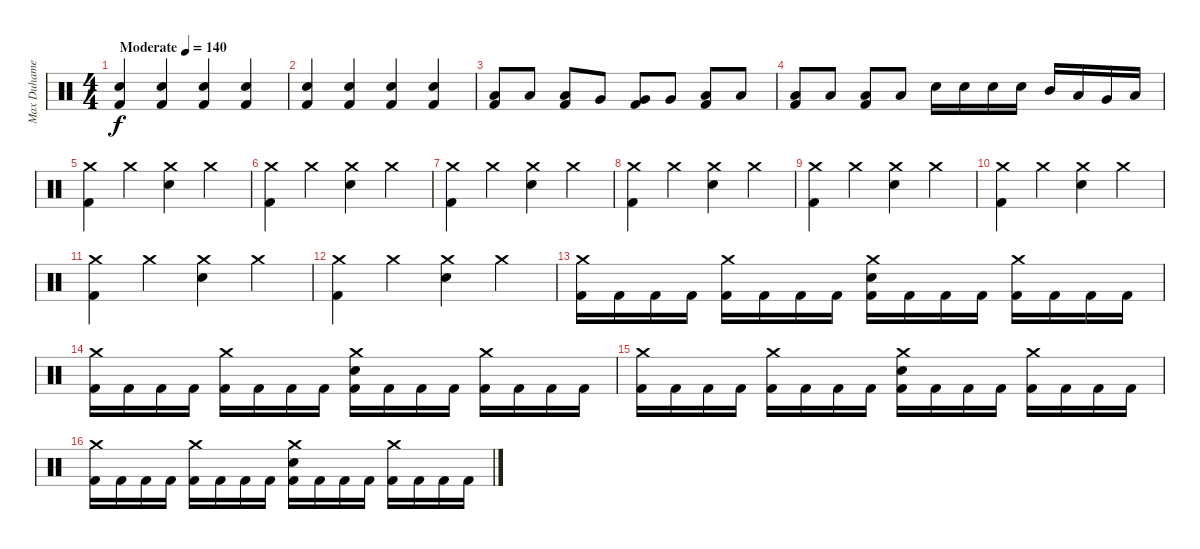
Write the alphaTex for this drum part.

\track ("Max Duhamel (Drums)" "Max Duhame") {instrument percussion}
\staff {score}
\articulation defaults
\ts (4 4)
\tempo (140 "Moderate")
\clef neutral
\ks c
("Electric Snare (hit)" "Kick (hit) 2").4{dy f} ("Electric Snare (hit)" "Kick (hit) 2").4 ("Electric Snare (hit)" "Kick (hit) 2").4 ("Electric Snare (hit)" "Kick (hit) 2").4 |
("Electric Snare (hit)" "Kick (hit) 2").4 ("Electric Snare (hit)" "Kick (hit) 2").4 ("Electric Snare (hit)" "Kick (hit) 2").4 ("Electric Snare (hit)" "Kick (hit) 2").4 |
("Low Tom (hit)" "Kick (hit) 2").8 "Low Tom (hit)".8 ("Low Tom (hit)" "Kick (hit) 2").8 "Very Low Tom (hit)".8 ("Very Low Tom (hit)" "Kick (hit) 2").8 "Very Low Tom (hit)".8 ("Low Floor Tom (hit)" "Kick (hit) 2").8 "Low Floor Tom (hit)".8 |
("Low Floor Tom (hit)" "Kick (hit) 2").8 "Low Floor Tom (hit)".8 ("Low Floor Tom (hit)" "Kick (hit) 2").8 "Low Floor Tom (hit)".8 "Electric Snare (hit)".16 "Electric Snare (hit)".16 "Electric Snare (hit)".16 "Electric Snare (hit)".16 "Mid Tom (hit)".16 "Low Tom (hit)".16 "Very Low Tom (hit)".16 "Low Floor Tom (hit)".16 |
("Crash medium (hit)" "Kick (hit) 2").4 "Crash medium (hit)".4 ("Crash medium (hit)" "Electric Snare (hit)").4 "Crash medium (hit)".4 |
("Crash medium (hit)" "Kick (hit) 2").4 "Crash medium (hit)".4 ("Crash medium (hit)" "Electric Snare (hit)").4 "Crash medium (hit)".4 |
("Crash medium (hit)" "Kick (hit) 2").4 "Crash medium (hit)".4 ("Crash medium (hit)" "Electric Snare (hit)").4 "Crash medium (hit)".4 |
("Crash medium (hit)" "Kick (hit) 2").4 "Crash medium (hit)".4 ("Crash medium (hit)" "Electric Snare (hit)").4 "Crash medium (hit)".4 |
("Crash medium (hit)" "Kick (hit) 2").4 "Crash medium (hit)".4 ("Crash medium (hit)" "Electric Snare (hit)").4 "Crash medium (hit)".4 |
("Crash medium (hit)" "Kick (hit) 2").4 "Crash medium (hit)".4 ("Crash medium (hit)" "Electric Snare (hit)").4 "Crash medium (hit)".4 |
("Crash medium (hit)" "Kick (hit) 2").4 "Crash medium (hit)".4 ("Crash medium (hit)" "Electric Snare (hit)").4 "Crash medium (hit)".4 |
("Crash medium (hit)" "Kick (hit) 2").4 "Crash medium (hit)".4 ("Crash medium (hit)" "Electric Snare (hit)").4 "Crash medium (hit)".4 |
("Crash medium (hit)" "Kick (hit) 2").16 "Kick (hit) 2".16 "Kick (hit) 2".16 "Kick (hit) 2".16 ("Crash medium (hit)" "Kick (hit) 2").16 "Kick (hit) 2".16 "Kick (hit) 2".16 "Kick (hit) 2".16 ("Crash medium (hit)" "Electric Snare (hit)" "Kick (hit) 2").16 "Kick (hit) 2".16 "Kick (hit) 2".16 "Kick (hit) 2".16 ("Crash medium (hit)" "Kick (hit) 2").16 "Kick (hit) 2".16 "Kick (hit) 2".16 "Kick (hit) 2".16 |
("Crash medium (hit)" "Kick (hit) 2").16 "Kick (hit) 2".16 "Kick (hit) 2".16 "Kick (hit) 2".16 ("Crash medium (hit)" "Kick (hit) 2").16 "Kick (hit) 2".16 "Kick (hit) 2".16 "Kick (hit) 2".16 ("Crash medium (hit)" "Electric Snare (hit)" "Kick (hit) 2").16 "Kick (hit) 2".16 "Kick (hit) 2".16 "Kick (hit) 2".16 ("Crash medium (hit)" "Kick (hit) 2").16 "Kick (hit) 2".16 "Kick (hit) 2".16 "Kick (hit) 2".16 |
("Crash medium (hit)" "Kick (hit) 2").16 "Kick (hit) 2".16 "Kick (hit) 2".16 "Kick (hit) 2".16 ("Crash medium (hit)" "Kick (hit) 2").16 "Kick (hit) 2".16 "Kick (hit) 2".16 "Kick (hit) 2".16 ("Crash medium (hit)" "Electric Snare (hit)" "Kick (hit) 2").16 "Kick (hit) 2".16 "Kick (hit) 2".16 "Kick (hit) 2".16 ("Crash medium (hit)" "Kick (hit) 2").16 "Kick (hit) 2".16 "Kick (hit) 2".16 "Kick (hit) 2".16 |
("Crash medium (hit)" "Kick (hit) 2").16 "Kick (hit) 2".16 "Kick (hit) 2".16 "Kick (hit) 2".16 ("Crash medium (hit)" "Kick (hit) 2").16 "Kick (hit) 2".16 "Kick (hit) 2".16 "Kick (hit) 2".16 ("Crash medium (hit)" "Electric Snare (hit)" "Kick (hit) 2").16 "Kick (hit) 2".16 "Kick (hit) 2".16 "Kick (hit) 2".16 ("Crash medium (hit)" "Kick (hit) 2").16 "Kick (hit) 2".16 "Kick (hit) 2".16 "Kick (hit) 2".16
